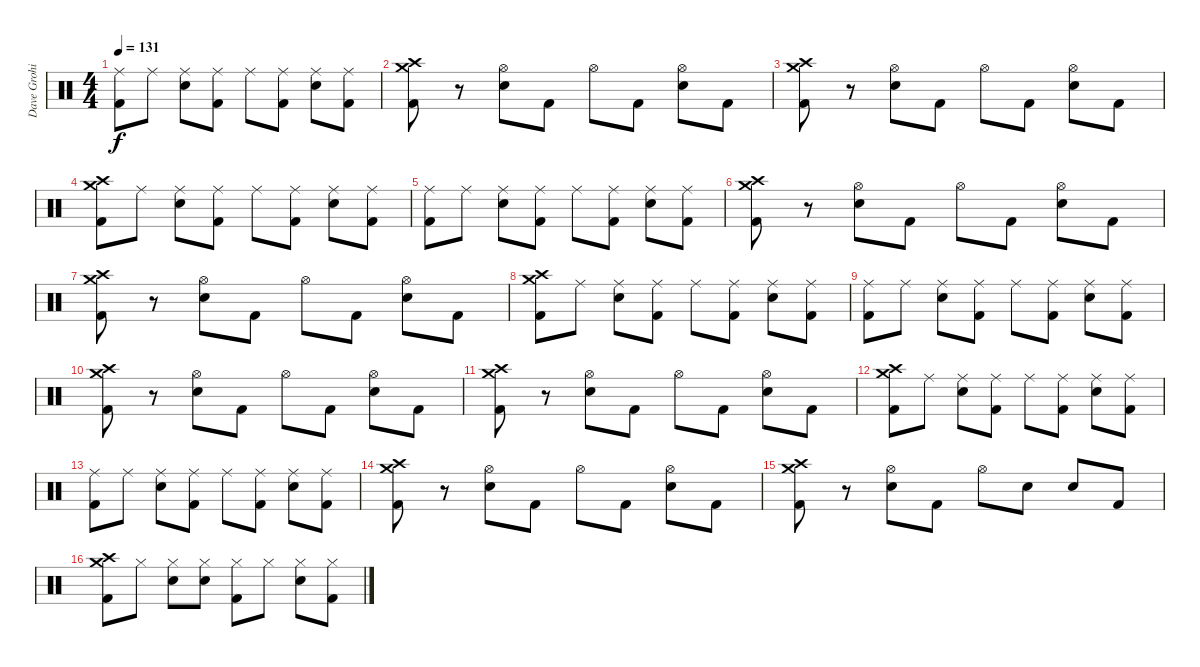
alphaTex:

\track ("Dave Grohi" "Dave Grohi") {instrument percussion}
\staff {score}
\articulation defaults
\ts (4 4)
\tempo 131
\clef neutral
\ks c
("Ride (middle)" "Kick (hit) 2").8{dy f} "Ride (middle)".8 ("Ride (middle)" "Snare (hit) 2").8 ("Ride (middle)" "Kick (hit) 2").8 "Ride (middle)".8 ("Ride (middle)" "Kick (hit) 2").8 ("Ride (middle)" "Snare (hit) 2").8 ("Ride (middle)" "Kick (hit) 2").8 |
("Crash high (hit)" "Crash medium (hit)" "Kick (hit) 2").8 r.8 ("Hi-Hat (open)" "Snare (hit) 2").8 "Kick (hit) 2".8 "Hi-Hat (open)".8 "Kick (hit) 2".8 ("Hi-Hat (open)" "Snare (hit) 2").8 "Kick (hit) 2".8 |
("Crash high (hit)" "Crash medium (hit)" "Kick (hit) 2").8 r.8 ("Hi-Hat (open)" "Snare (hit) 2").8 "Kick (hit) 2".8 "Hi-Hat (open)".8 "Kick (hit) 2".8 ("Hi-Hat (open)" "Snare (hit) 2").8 "Kick (hit) 2".8 |
("Crash high (hit)" "Crash medium (hit)" "Kick (hit) 2").8 "Ride (middle)".8 ("Ride (middle)" "Snare (hit) 2").8 ("Ride (middle)" "Kick (hit) 2").8 "Ride (middle)".8 ("Ride (middle)" "Kick (hit) 2").8 ("Ride (middle)" "Snare (hit) 2").8 ("Ride (middle)" "Kick (hit) 2").8 |
("Ride (middle)" "Kick (hit) 2").8 "Ride (middle)".8 ("Ride (middle)" "Snare (hit) 2").8 ("Ride (middle)" "Kick (hit) 2").8 "Ride (middle)".8 ("Ride (middle)" "Kick (hit) 2").8 ("Ride (middle)" "Snare (hit) 2").8 ("Ride (middle)" "Kick (hit) 2").8 |
("Crash high (hit)" "Crash medium (hit)" "Kick (hit) 2").8 r.8 ("Hi-Hat (open)" "Snare (hit) 2").8 "Kick (hit) 2".8 "Hi-Hat (open)".8 "Kick (hit) 2".8 ("Hi-Hat (open)" "Snare (hit) 2").8 "Kick (hit) 2".8 |
("Crash high (hit)" "Crash medium (hit)" "Kick (hit) 2").8 r.8 ("Hi-Hat (open)" "Snare (hit) 2").8 "Kick (hit) 2".8 "Hi-Hat (open)".8 "Kick (hit) 2".8 ("Hi-Hat (open)" "Snare (hit) 2").8 "Kick (hit) 2".8 |
("Crash high (hit)" "Crash medium (hit)" "Kick (hit) 2").8 "Ride (middle)".8 ("Ride (middle)" "Snare (hit) 2").8 ("Ride (middle)" "Kick (hit) 2").8 "Ride (middle)".8 ("Ride (middle)" "Kick (hit) 2").8 ("Ride (middle)" "Snare (hit) 2").8 ("Ride (middle)" "Kick (hit) 2").8 |
("Ride (middle)" "Kick (hit) 2").8 "Ride (middle)".8 ("Ride (middle)" "Snare (hit) 2").8 ("Ride (middle)" "Kick (hit) 2").8 "Ride (middle)".8 ("Ride (middle)" "Kick (hit) 2").8 ("Ride (middle)" "Snare (hit) 2").8 ("Ride (middle)" "Kick (hit) 2").8 |
("Crash high (hit)" "Crash medium (hit)" "Kick (hit) 2").8 r.8 ("Hi-Hat (open)" "Snare (hit) 2").8 "Kick (hit) 2".8 "Hi-Hat (open)".8 "Kick (hit) 2".8 ("Hi-Hat (open)" "Snare (hit) 2").8 "Kick (hit) 2".8 |
("Crash high (hit)" "Crash medium (hit)" "Kick (hit) 2").8 r.8 ("Hi-Hat (open)" "Snare (hit) 2").8 "Kick (hit) 2".8 "Hi-Hat (open)".8 "Kick (hit) 2".8 ("Hi-Hat (open)" "Snare (hit) 2").8 "Kick (hit) 2".8 |
("Crash high (hit)" "Crash medium (hit)" "Kick (hit) 2").8 "Ride (middle)".8 ("Ride (middle)" "Snare (hit) 2").8 ("Ride (middle)" "Kick (hit) 2").8 "Ride (middle)".8 ("Ride (middle)" "Kick (hit) 2").8 ("Ride (middle)" "Snare (hit) 2").8 ("Ride (middle)" "Kick (hit) 2").8 |
("Ride (middle)" "Kick (hit) 2").8 "Ride (middle)".8 ("Ride (middle)" "Snare (hit) 2").8 ("Ride (middle)" "Kick (hit) 2").8 "Ride (middle)".8 ("Ride (middle)" "Kick (hit) 2").8 ("Ride (middle)" "Snare (hit) 2").8 ("Ride (middle)" "Kick (hit) 2").8 |
("Crash high (hit)" "Crash medium (hit)" "Kick (hit) 2").8 r.8 ("Hi-Hat (open)" "Snare (hit) 2").8 "Kick (hit) 2".8 "Hi-Hat (open)".8 "Kick (hit) 2".8 ("Hi-Hat (open)" "Snare (hit) 2").8 "Kick (hit) 2".8 |
("Crash high (hit)" "Crash medium (hit)" "Kick (hit) 2").8 r.8 ("Hi-Hat (open)" "Snare (hit) 2").8 "Kick (hit) 2".8 "Hi-Hat (open)".8 "Snare (hit) 2".8 "Snare (hit) 2".8 "Kick (hit) 2".8 |
("Crash high (hit)" "Crash medium (hit)" "Kick (hit) 2").8 "Hi-Hat (closed)".8 ("Hi-Hat (closed)" "Snare (hit) 2").8 ("Hi-Hat (closed)" "Snare (hit) 2").8 ("Hi-Hat (closed)" "Kick (hit) 2").8 "Hi-Hat (closed)".8 ("Hi-Hat (closed)" "Snare (hit) 2").8 ("Hi-Hat (closed)" "Kick (hit) 2").8
